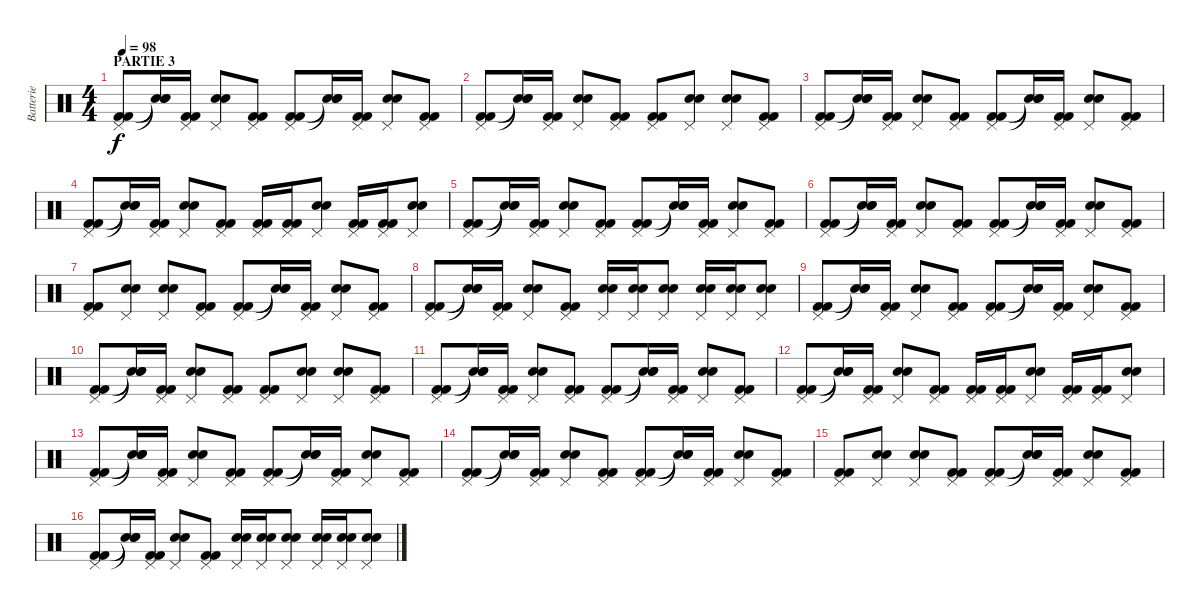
\track ("Batterie" "Batterie") {instrument percussion}
\staff {score}
\articulation defaults
\ts (4 4)
\section ("" "PARTIE 3")
\tempo 98
\clef neutral
\ks c
("Pedal Hi-Hat (hit)" "Kick (hit) 2" "Kick (hit) 2").8{dy f} ("Snare (hit)"{t} "Snare (hit)"{t} "Snare (hit)"{t}).16 ("Pedal Hi-Hat (hit)" "Kick (hit) 2" "Kick (hit) 2").16 ("Pedal Hi-Hat (hit)" "Electric Snare (hit)" "Electric Snare (hit)").8 ("Pedal Hi-Hat (hit)" "Kick (hit) 2" "Kick (hit) 2").8 ("Pedal Hi-Hat (hit)" "Kick (hit) 2" "Kick (hit) 2").8 ("Snare (hit)"{t} "Snare (hit)"{t} "Snare (hit)"{t}).16 ("Pedal Hi-Hat (hit)" "Kick (hit) 2" "Kick (hit) 2").16 ("Pedal Hi-Hat (hit)" "Electric Snare (hit)" "Electric Snare (hit)").8 ("Pedal Hi-Hat (hit)" "Kick (hit) 2" "Kick (hit) 2").8 |
("Pedal Hi-Hat (hit)" "Kick (hit) 2" "Kick (hit) 2").8 ("Snare (hit)"{t} "Snare (hit)"{t} "Snare (hit)"{t}).16 ("Pedal Hi-Hat (hit)" "Kick (hit) 2" "Kick (hit) 2").16 ("Pedal Hi-Hat (hit)" "Electric Snare (hit)" "Electric Snare (hit)").8 ("Pedal Hi-Hat (hit)" "Kick (hit) 2" "Kick (hit) 2").8 ("Pedal Hi-Hat (hit)" "Kick (hit) 2" "Kick (hit) 2").8 ("Pedal Hi-Hat (hit)" "Electric Snare (hit)" "Electric Snare (hit)").8 ("Pedal Hi-Hat (hit)" "Electric Snare (hit)" "Electric Snare (hit)").8 ("Pedal Hi-Hat (hit)" "Kick (hit) 2" "Kick (hit) 2").8 |
("Pedal Hi-Hat (hit)" "Kick (hit) 2" "Kick (hit) 2").8 ("Snare (hit)"{t} "Snare (hit)"{t} "Snare (hit)"{t}).16 ("Pedal Hi-Hat (hit)" "Kick (hit) 2" "Kick (hit) 2").16 ("Pedal Hi-Hat (hit)" "Electric Snare (hit)" "Electric Snare (hit)").8 ("Pedal Hi-Hat (hit)" "Kick (hit) 2" "Kick (hit) 2").8 ("Pedal Hi-Hat (hit)" "Kick (hit) 2" "Kick (hit) 2").8 ("Snare (hit)"{t} "Snare (hit)"{t} "Snare (hit)"{t}).16 ("Pedal Hi-Hat (hit)" "Kick (hit) 2" "Kick (hit) 2").16 ("Pedal Hi-Hat (hit)" "Electric Snare (hit)" "Electric Snare (hit)").8 ("Pedal Hi-Hat (hit)" "Kick (hit) 2" "Kick (hit) 2").8 |
("Pedal Hi-Hat (hit)" "Kick (hit) 2" "Kick (hit) 2").8 ("Snare (hit)"{t} "Snare (hit)"{t} "Snare (hit)"{t}).16 ("Pedal Hi-Hat (hit)" "Kick (hit) 2" "Kick (hit) 2").16 ("Pedal Hi-Hat (hit)" "Electric Snare (hit)" "Electric Snare (hit)").8 ("Pedal Hi-Hat (hit)" "Kick (hit) 2" "Kick (hit) 2").8 ("Pedal Hi-Hat (hit)" "Kick (hit) 2" "Kick (hit) 2").16 ("Pedal Hi-Hat (hit)" "Kick (hit) 2" "Kick (hit) 2").16 ("Pedal Hi-Hat (hit)" "Electric Snare (hit)" "Electric Snare (hit)").8 ("Pedal Hi-Hat (hit)" "Kick (hit) 2" "Kick (hit) 2").16 ("Pedal Hi-Hat (hit)" "Kick (hit) 2" "Kick (hit) 2").16 ("Pedal Hi-Hat (hit)" "Electric Snare (hit)" "Electric Snare (hit)").8 |
("Pedal Hi-Hat (hit)" "Kick (hit) 2" "Kick (hit) 2").8 ("Snare (hit)"{t} "Snare (hit)"{t} "Snare (hit)"{t}).16 ("Pedal Hi-Hat (hit)" "Kick (hit) 2" "Kick (hit) 2").16 ("Pedal Hi-Hat (hit)" "Electric Snare (hit)" "Electric Snare (hit)").8 ("Pedal Hi-Hat (hit)" "Kick (hit) 2" "Kick (hit) 2").8 ("Pedal Hi-Hat (hit)" "Kick (hit) 2" "Kick (hit) 2").8 ("Snare (hit)"{t} "Snare (hit)"{t} "Snare (hit)"{t}).16 ("Pedal Hi-Hat (hit)" "Kick (hit) 2" "Kick (hit) 2").16 ("Pedal Hi-Hat (hit)" "Electric Snare (hit)" "Electric Snare (hit)").8 ("Pedal Hi-Hat (hit)" "Kick (hit) 2" "Kick (hit) 2").8 |
("Pedal Hi-Hat (hit)" "Kick (hit) 2" "Kick (hit) 2").8 ("Snare (hit)"{t} "Snare (hit)"{t} "Snare (hit)"{t}).16 ("Pedal Hi-Hat (hit)" "Kick (hit) 2" "Kick (hit) 2").16 ("Pedal Hi-Hat (hit)" "Electric Snare (hit)" "Electric Snare (hit)").8 ("Pedal Hi-Hat (hit)" "Kick (hit) 2" "Kick (hit) 2").8 ("Pedal Hi-Hat (hit)" "Kick (hit) 2" "Kick (hit) 2").8 ("Snare (hit)"{t} "Snare (hit)"{t} "Snare (hit)"{t}).16 ("Pedal Hi-Hat (hit)" "Kick (hit) 2" "Kick (hit) 2").16 ("Pedal Hi-Hat (hit)" "Electric Snare (hit)" "Electric Snare (hit)").8 ("Pedal Hi-Hat (hit)" "Kick (hit) 2" "Kick (hit) 2").8 |
("Pedal Hi-Hat (hit)" "Kick (hit) 2" "Kick (hit) 2").8 ("Pedal Hi-Hat (hit)" "Electric Snare (hit)" "Electric Snare (hit)").8 ("Pedal Hi-Hat (hit)" "Electric Snare (hit)" "Electric Snare (hit)").8 ("Pedal Hi-Hat (hit)" "Kick (hit) 2" "Kick (hit) 2").8 ("Pedal Hi-Hat (hit)" "Kick (hit) 2" "Kick (hit) 2").8 ("Snare (hit)"{t} "Snare (hit)"{t} "Snare (hit)"{t}).16 ("Pedal Hi-Hat (hit)" "Kick (hit) 2" "Kick (hit) 2").16 ("Pedal Hi-Hat (hit)" "Electric Snare (hit)" "Electric Snare (hit)").8 ("Pedal Hi-Hat (hit)" "Kick (hit) 2" "Kick (hit) 2").8 |
("Pedal Hi-Hat (hit)" "Kick (hit) 2" "Kick (hit) 2").8 ("Snare (hit)"{t} "Snare (hit)"{t} "Snare (hit)"{t}).16 ("Pedal Hi-Hat (hit)" "Kick (hit) 2" "Kick (hit) 2").16 ("Pedal Hi-Hat (hit)" "Electric Snare (hit)" "Electric Snare (hit)").8 ("Pedal Hi-Hat (hit)" "Kick (hit) 2" "Kick (hit) 2").8 ("Pedal Hi-Hat (hit)" "Electric Snare (hit)" "Electric Snare (hit)").16 ("Pedal Hi-Hat (hit)" "Electric Snare (hit)" "Electric Snare (hit)").16 ("Pedal Hi-Hat (hit)" "Electric Snare (hit)" "Electric Snare (hit)").8 ("Pedal Hi-Hat (hit)" "Electric Snare (hit)" "Electric Snare (hit)").16 ("Pedal Hi-Hat (hit)" "Electric Snare (hit)" "Electric Snare (hit)").16 ("Pedal Hi-Hat (hit)" "Electric Snare (hit)" "Electric Snare (hit)").8 |
("Pedal Hi-Hat (hit)" "Kick (hit) 2" "Kick (hit) 2").8 ("Snare (hit)"{t} "Snare (hit)"{t} "Snare (hit)"{t}).16 ("Pedal Hi-Hat (hit)" "Kick (hit) 2" "Kick (hit) 2").16 ("Pedal Hi-Hat (hit)" "Electric Snare (hit)" "Electric Snare (hit)").8 ("Pedal Hi-Hat (hit)" "Kick (hit) 2" "Kick (hit) 2").8 ("Pedal Hi-Hat (hit)" "Kick (hit) 2" "Kick (hit) 2").8 ("Snare (hit)"{t} "Snare (hit)"{t} "Snare (hit)"{t}).16 ("Pedal Hi-Hat (hit)" "Kick (hit) 2" "Kick (hit) 2").16 ("Pedal Hi-Hat (hit)" "Electric Snare (hit)" "Electric Snare (hit)").8 ("Pedal Hi-Hat (hit)" "Kick (hit) 2" "Kick (hit) 2").8 |
("Pedal Hi-Hat (hit)" "Kick (hit) 2" "Kick (hit) 2").8 ("Snare (hit)"{t} "Snare (hit)"{t} "Snare (hit)"{t}).16 ("Pedal Hi-Hat (hit)" "Kick (hit) 2" "Kick (hit) 2").16 ("Pedal Hi-Hat (hit)" "Electric Snare (hit)" "Electric Snare (hit)").8 ("Pedal Hi-Hat (hit)" "Kick (hit) 2" "Kick (hit) 2").8 ("Pedal Hi-Hat (hit)" "Kick (hit) 2" "Kick (hit) 2").8 ("Pedal Hi-Hat (hit)" "Electric Snare (hit)" "Electric Snare (hit)").8 ("Pedal Hi-Hat (hit)" "Electric Snare (hit)" "Electric Snare (hit)").8 ("Pedal Hi-Hat (hit)" "Kick (hit) 2" "Kick (hit) 2").8 |
("Pedal Hi-Hat (hit)" "Kick (hit) 2" "Kick (hit) 2").8 ("Snare (hit)"{t} "Snare (hit)"{t} "Snare (hit)"{t}).16 ("Pedal Hi-Hat (hit)" "Kick (hit) 2" "Kick (hit) 2").16 ("Pedal Hi-Hat (hit)" "Electric Snare (hit)" "Electric Snare (hit)").8 ("Pedal Hi-Hat (hit)" "Kick (hit) 2" "Kick (hit) 2").8 ("Pedal Hi-Hat (hit)" "Kick (hit) 2" "Kick (hit) 2").8 ("Snare (hit)"{t} "Snare (hit)"{t} "Snare (hit)"{t}).16 ("Pedal Hi-Hat (hit)" "Kick (hit) 2" "Kick (hit) 2").16 ("Pedal Hi-Hat (hit)" "Electric Snare (hit)" "Electric Snare (hit)").8 ("Pedal Hi-Hat (hit)" "Kick (hit) 2" "Kick (hit) 2").8 |
("Pedal Hi-Hat (hit)" "Kick (hit) 2" "Kick (hit) 2").8 ("Snare (hit)"{t} "Snare (hit)"{t} "Snare (hit)"{t}).16 ("Pedal Hi-Hat (hit)" "Kick (hit) 2" "Kick (hit) 2").16 ("Pedal Hi-Hat (hit)" "Electric Snare (hit)" "Electric Snare (hit)").8 ("Pedal Hi-Hat (hit)" "Kick (hit) 2" "Kick (hit) 2").8 ("Pedal Hi-Hat (hit)" "Kick (hit) 2" "Kick (hit) 2").16 ("Pedal Hi-Hat (hit)" "Kick (hit) 2" "Kick (hit) 2").16 ("Pedal Hi-Hat (hit)" "Electric Snare (hit)" "Electric Snare (hit)").8 ("Pedal Hi-Hat (hit)" "Kick (hit) 2" "Kick (hit) 2").16 ("Pedal Hi-Hat (hit)" "Kick (hit) 2" "Kick (hit) 2").16 ("Pedal Hi-Hat (hit)" "Electric Snare (hit)" "Electric Snare (hit)").8 |
("Pedal Hi-Hat (hit)" "Kick (hit) 2" "Kick (hit) 2").8 ("Snare (hit)"{t} "Snare (hit)"{t} "Snare (hit)"{t}).16 ("Pedal Hi-Hat (hit)" "Kick (hit) 2" "Kick (hit) 2").16 ("Pedal Hi-Hat (hit)" "Electric Snare (hit)" "Electric Snare (hit)").8 ("Pedal Hi-Hat (hit)" "Kick (hit) 2" "Kick (hit) 2").8 ("Pedal Hi-Hat (hit)" "Kick (hit) 2" "Kick (hit) 2").8 ("Snare (hit)"{t} "Snare (hit)"{t} "Snare (hit)"{t}).16 ("Pedal Hi-Hat (hit)" "Kick (hit) 2" "Kick (hit) 2").16 ("Pedal Hi-Hat (hit)" "Electric Snare (hit)" "Electric Snare (hit)").8 ("Pedal Hi-Hat (hit)" "Kick (hit) 2" "Kick (hit) 2").8 |
("Pedal Hi-Hat (hit)" "Kick (hit) 2" "Kick (hit) 2").8 ("Snare (hit)"{t} "Snare (hit)"{t} "Snare (hit)"{t}).16 ("Pedal Hi-Hat (hit)" "Kick (hit) 2" "Kick (hit) 2").16 ("Pedal Hi-Hat (hit)" "Electric Snare (hit)" "Electric Snare (hit)").8 ("Pedal Hi-Hat (hit)" "Kick (hit) 2" "Kick (hit) 2").8 ("Pedal Hi-Hat (hit)" "Kick (hit) 2" "Kick (hit) 2").8 ("Snare (hit)"{t} "Snare (hit)"{t} "Snare (hit)"{t}).16 ("Pedal Hi-Hat (hit)" "Kick (hit) 2" "Kick (hit) 2").16 ("Pedal Hi-Hat (hit)" "Electric Snare (hit)" "Electric Snare (hit)").8 ("Pedal Hi-Hat (hit)" "Kick (hit) 2" "Kick (hit) 2").8 |
("Pedal Hi-Hat (hit)" "Kick (hit) 2" "Kick (hit) 2").8 ("Pedal Hi-Hat (hit)" "Electric Snare (hit)" "Electric Snare (hit)").8 ("Pedal Hi-Hat (hit)" "Electric Snare (hit)" "Electric Snare (hit)").8 ("Pedal Hi-Hat (hit)" "Kick (hit) 2" "Kick (hit) 2").8 ("Pedal Hi-Hat (hit)" "Kick (hit) 2" "Kick (hit) 2").8 ("Snare (hit)"{t} "Snare (hit)"{t} "Snare (hit)"{t}).16 ("Pedal Hi-Hat (hit)" "Kick (hit) 2" "Kick (hit) 2").16 ("Pedal Hi-Hat (hit)" "Electric Snare (hit)" "Electric Snare (hit)").8 ("Pedal Hi-Hat (hit)" "Kick (hit) 2" "Kick (hit) 2").8 |
("Pedal Hi-Hat (hit)" "Kick (hit) 2" "Kick (hit) 2").8 ("Snare (hit)"{t} "Snare (hit)"{t} "Snare (hit)"{t}).16 ("Pedal Hi-Hat (hit)" "Kick (hit) 2" "Kick (hit) 2").16 ("Pedal Hi-Hat (hit)" "Electric Snare (hit)" "Electric Snare (hit)").8 ("Pedal Hi-Hat (hit)" "Kick (hit) 2" "Kick (hit) 2").8 ("Pedal Hi-Hat (hit)" "Electric Snare (hit)" "Electric Snare (hit)").16 ("Pedal Hi-Hat (hit)" "Electric Snare (hit)" "Electric Snare (hit)").16 ("Pedal Hi-Hat (hit)" "Electric Snare (hit)" "Electric Snare (hit)").8 ("Pedal Hi-Hat (hit)" "Electric Snare (hit)" "Electric Snare (hit)").16 ("Pedal Hi-Hat (hit)" "Electric Snare (hit)" "Electric Snare (hit)").16 ("Pedal Hi-Hat (hit)" "Electric Snare (hit)" "Electric Snare (hit)").8
